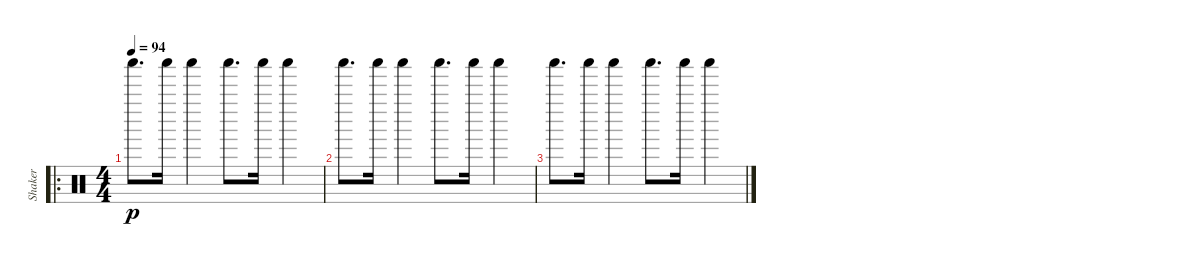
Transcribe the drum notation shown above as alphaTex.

\track ("Shaker" "Shaker") {instrument percussion}
\staff {score}
\articulation defaults
\ro
\ts (4 4)
\tempo 94
\clef neutral
\ks c "Shaker (hit)".8{d dy p} "Shaker (hit)".16 "Shaker (hit)".4 "Shaker (hit)".8{d} "Shaker (hit)".16 "Shaker (hit)".4
|
"Shaker (hit)".8{d} "Shaker (hit)".16 "Shaker (hit)".4 "Shaker (hit)".8{d} "Shaker (hit)".16 "Shaker (hit)".4 |
"Shaker (hit)".8{d} "Shaker (hit)".16 "Shaker (hit)".4 "Shaker (hit)".8{d} "Shaker (hit)".16 "Shaker (hit)".4
